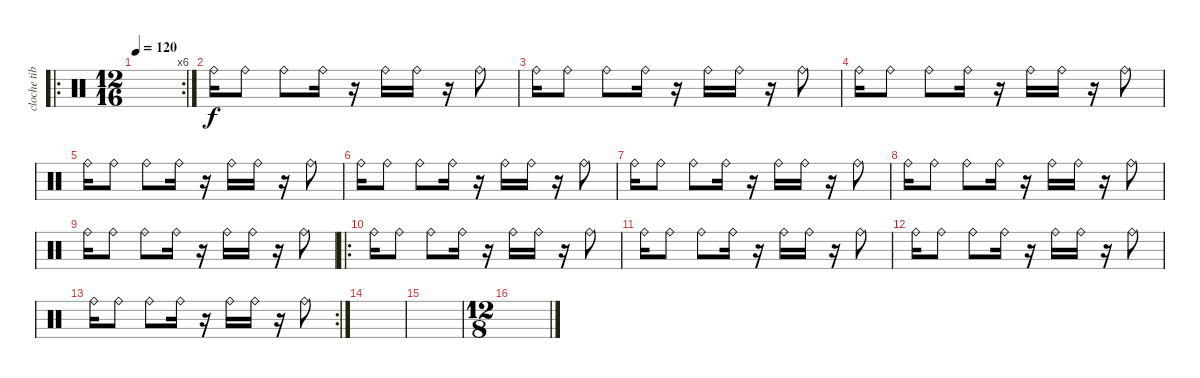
\track ("cloche tibetaine" "cloche tib") {instrument percussion}
\staff {score}
\articulation defaults
\ro
\rc 6
\ts (12 16)
\tempo 120
\clef neutral
\ks c
|
"Ride (bell)".16{volume 13} "Ride (bell)".8 "Ride (bell)".8 "Ride (bell)".16 r.16 "Ride (bell)".16 "Ride (bell)".16 r.16 "Ride (bell)".8 |
"Ride (bell)".16 "Ride (bell)".8 "Ride (bell)".8 "Ride (bell)".16 r.16 "Ride (bell)".16 "Ride (bell)".16 r.16 "Ride (bell)".8 |
"Ride (bell)".16 "Ride (bell)".8 "Ride (bell)".8 "Ride (bell)".16 r.16 "Ride (bell)".16 "Ride (bell)".16 r.16 "Ride (bell)".8 |
"Ride (bell)".16 "Ride (bell)".8 "Ride (bell)".8 "Ride (bell)".16 r.16 "Ride (bell)".16 "Ride (bell)".16 r.16 "Ride (bell)".8 |
"Ride (bell)".16 "Ride (bell)".8 "Ride (bell)".8 "Ride (bell)".16 r.16 "Ride (bell)".16 "Ride (bell)".16 r.16 "Ride (bell)".8 |
"Ride (bell)".16 "Ride (bell)".8 "Ride (bell)".8 "Ride (bell)".16 r.16 "Ride (bell)".16 "Ride (bell)".16 r.16 "Ride (bell)".8 |
"Ride (bell)".16 "Ride (bell)".8 "Ride (bell)".8 "Ride (bell)".16 r.16 "Ride (bell)".16 "Ride (bell)".16 r.16 "Ride (bell)".8 |
"Ride (bell)".16 "Ride (bell)".8 "Ride (bell)".8 "Ride (bell)".16 r.16 "Ride (bell)".16 "Ride (bell)".16 r.16 "Ride (bell)".8 |
\ro "Ride (bell)".16 "Ride (bell)".8 "Ride (bell)".8 "Ride (bell)".16
r.16 "Ride (bell)".16 "Ride (bell)".16 r.16 "Ride (bell)".8 |
"Ride (bell)".16 "Ride (bell)".8 "Ride (bell)".8 "Ride (bell)".16 r.16 "Ride (bell)".16 "Ride (bell)".16 r.16 "Ride (bell)".8 |
"Ride (bell)".16 "Ride (bell)".8 "Ride (bell)".8 "Ride (bell)".16 r.16 "Ride (bell)".16 "Ride (bell)".16 r.16 "Ride (bell)".8 |
\rc 2 "Ride (bell)".16 "Ride (bell)".8 "Ride (bell)".8 "Ride (bell)".16
r.16 "Ride (bell)".16 "Ride (bell)".16 r.16 "Ride (bell)".8 |
|
|
\ts (12 8)
